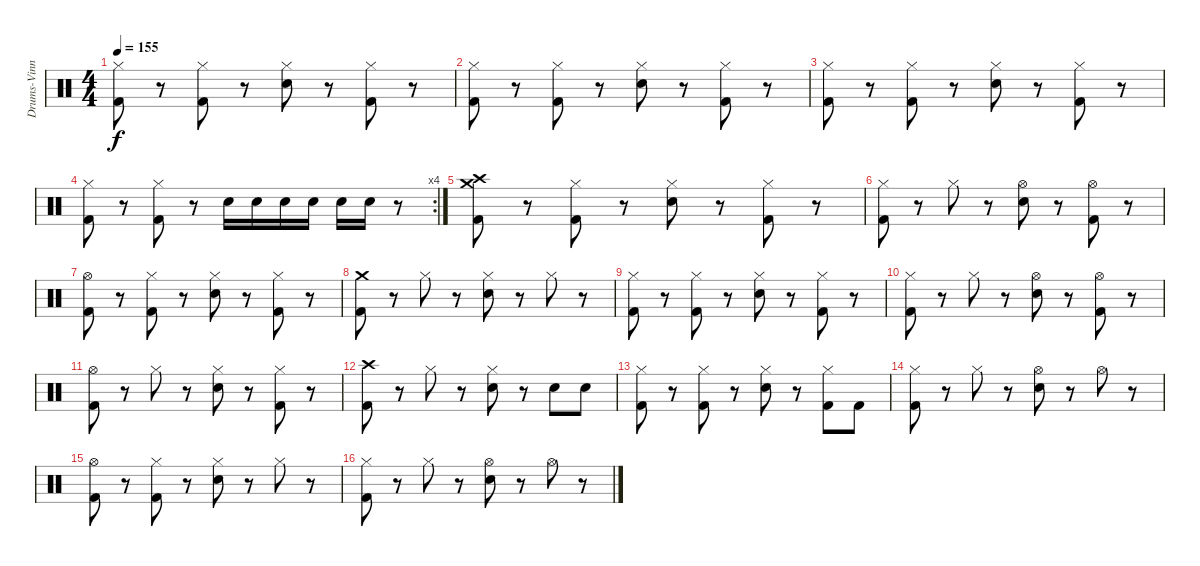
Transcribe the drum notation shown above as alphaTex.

\track ("Drums-Vinny Appice" "Drums-Vinn") {instrument percussion}
\staff {score}
\articulation defaults
\ts (4 4)
\tempo 155
\clef neutral
\ks c
("Hi-Hat (closed)" "Kick (hit) 2").8{dy f} r.8 ("Hi-Hat (closed)" "Kick (hit) 2").8 r.8 ("Hi-Hat (closed)" "Electric Snare (hit)").8 r.8 ("Hi-Hat (closed)" "Kick (hit) 2").8 r.8 |
("Hi-Hat (closed)" "Kick (hit) 2").8 r.8 ("Hi-Hat (closed)" "Kick (hit) 2").8 r.8 ("Hi-Hat (closed)" "Electric Snare (hit)").8 r.8 ("Hi-Hat (closed)" "Kick (hit) 2").8 r.8 |
("Hi-Hat (closed)" "Kick (hit) 2").8 r.8 ("Hi-Hat (closed)" "Kick (hit) 2").8 r.8 ("Hi-Hat (closed)" "Electric Snare (hit)").8 r.8 ("Hi-Hat (closed)" "Kick (hit) 2").8 r.8 |
\rc 4
("Hi-Hat (closed)" "Kick (hit) 2").8 r.8 ("Hi-Hat (closed)" "Kick (hit) 2").8 r.8 "Electric Snare (hit)".16 "Electric Snare (hit)".16 "Electric Snare (hit)".16 "Electric Snare (hit)".16 "Electric Snare (hit)".16 "Electric Snare (hit)".16 r.8 |
("Crash medium (hit)" "Crash high (hit)" "Kick (hit) 2").8 r.8 ("Hi-Hat (closed)" "Kick (hit) 2").8 r.8 ("Hi-Hat (closed)" "Electric Snare (hit)").8 r.8 ("Hi-Hat (closed)" "Kick (hit) 2").8 r.8 |
("Hi-Hat (closed)" "Kick (hit) 2").8 r.8 "Hi-Hat (closed)".8 r.8 ("Hi-Hat (open)" "Electric Snare (hit)").8 r.8 ("Hi-Hat (open)" "Kick (hit) 2").8 r.8 |
("Hi-Hat (open)" "Kick (hit) 2").8 r.8 ("Hi-Hat (closed)" "Kick (hit) 2").8 r.8 ("Hi-Hat (closed)" "Electric Snare (hit)").8 r.8 ("Hi-Hat (closed)" "Kick (hit) 2").8 r.8 |
("Crash medium (hit)" "Kick (hit) 2").8 r.8 "Hi-Hat (closed)".8 r.8 ("Hi-Hat (closed)" "Electric Snare (hit)").8 r.8 "Hi-Hat (closed)".8 r.8 |
("Hi-Hat (closed)" "Kick (hit) 2").8 r.8 ("Hi-Hat (closed)" "Kick (hit) 2").8 r.8 ("Hi-Hat (closed)" "Electric Snare (hit)").8 r.8 ("Hi-Hat (closed)" "Kick (hit) 2").8 r.8 |
("Hi-Hat (closed)" "Kick (hit) 2").8 r.8 "Hi-Hat (closed)".8 r.8 ("Hi-Hat (open)" "Electric Snare (hit)").8 r.8 ("Hi-Hat (open)" "Kick (hit) 2").8 r.8 |
("Hi-Hat (open)" "Kick (hit) 2").8 r.8 "Hi-Hat (closed)".8 r.8 ("Hi-Hat (closed)" "Electric Snare (hit)").8 r.8 ("Hi-Hat (closed)" "Kick (hit) 2").8 r.8 |
("Crash high (hit)" "Kick (hit) 2").8 r.8 "Hi-Hat (closed)".8 r.8 ("Hi-Hat (closed)" "Electric Snare (hit)").8 r.8 "Electric Snare (hit)".8 "Electric Snare (hit)".8 |
("Hi-Hat (closed)" "Kick (hit) 2").8 r.8 ("Hi-Hat (closed)" "Kick (hit) 2").8 r.8 ("Hi-Hat (closed)" "Electric Snare (hit)").8 r.8 ("Hi-Hat (closed)" "Kick (hit) 2").8 "Kick (hit) 2".8 |
("Hi-Hat (closed)" "Kick (hit) 2").8 r.8 "Hi-Hat (closed)".8 r.8 ("Hi-Hat (open)" "Electric Snare (hit)").8 r.8 "Hi-Hat (open)".8 r.8 |
("Hi-Hat (open)" "Kick (hit) 2").8 r.8 ("Hi-Hat (closed)" "Kick (hit) 2").8 r.8 ("Hi-Hat (closed)" "Electric Snare (hit)").8 r.8 "Hi-Hat (closed)".8 r.8 |
("Hi-Hat (closed)" "Kick (hit) 2").8 r.8 "Hi-Hat (closed)".8 r.8 ("Hi-Hat (open)" "Electric Snare (hit)").8 r.8 "Hi-Hat (open)".8 r.8
